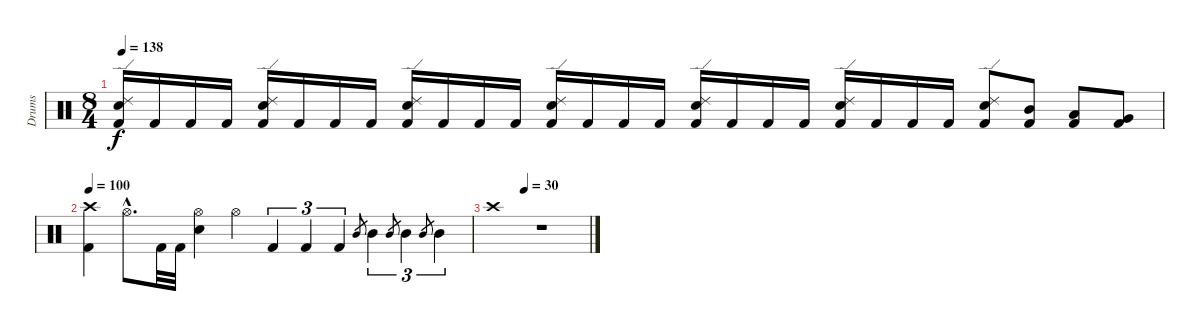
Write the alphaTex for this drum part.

\track ("Drums" "Drums") {instrument percussion}
\staff {score}
\articulation defaults
\ts (8 4)
\tempo 138
\clef neutral
\ks c
("Ride (edge) 2" "Snare (hit) 2" "Kick (hit) 2").16{dy f} "Kick (hit) 2".16 "Kick (hit) 2".16 "Kick (hit) 2".16 ("Ride (edge) 2" "Snare (hit) 2" "Kick (hit) 2").16 "Kick (hit) 2".16 "Kick (hit) 2".16 "Kick (hit) 2".16 ("Ride (edge) 2" "Snare (hit) 2" "Kick (hit) 2").16 "Kick (hit) 2".16 "Kick (hit) 2".16 "Kick (hit) 2".16 ("Ride (edge) 2" "Snare (hit) 2" "Kick (hit) 2").16 "Kick (hit) 2".16 "Kick (hit) 2".16 "Kick (hit) 2".16 ("Ride (edge) 2" "Snare (hit) 2" "Kick (hit) 2").16 "Kick (hit) 2".16 "Kick (hit) 2".16 "Kick (hit) 2".16 ("Ride (edge) 2" "Snare (hit) 2" "Kick (hit) 2").16 "Kick (hit) 2".16 "Kick (hit) 2".16 "Kick (hit) 2".16 ("Ride (edge) 2" "Snare (hit) 2" "Kick (hit) 2").8 ("Mid Tom (hit)" "Kick (hit) 2").8 ("Low Tom (hit)" "Kick (hit) 2").8 ("Very Low Tom (hit)" "Kick (hit) 2").8 |
\tempo 100
("Crash high (hit)" "Kick (hit) 2").4 "Hi-Hat (open)"{hac}.8{d} "Kick (hit) 2".32 "Kick (hit) 2".32 ("Hi-Hat (open)" "Snare (hit) 2").4 "Hi-Hat (open)".4 "Kick (hit) 2".4{tu (3 2)} "Kick (hit) 2".4{tu (3 2)} "Kick (hit) 2".4{tu (3 2)} "Mid Tom (hit)".8{gr} "Mid Tom (hit)".4{tu (3 2)} "Mid Tom (hit)".8{gr} "Mid Tom (hit)".4{tu (3 2)} "Mid Tom (hit)".8{gr} "Mid Tom (hit)".4{tu (3 2)} |
\tempo (30 0.3333333333333333)
"Crash high (hit)".1 r.1
